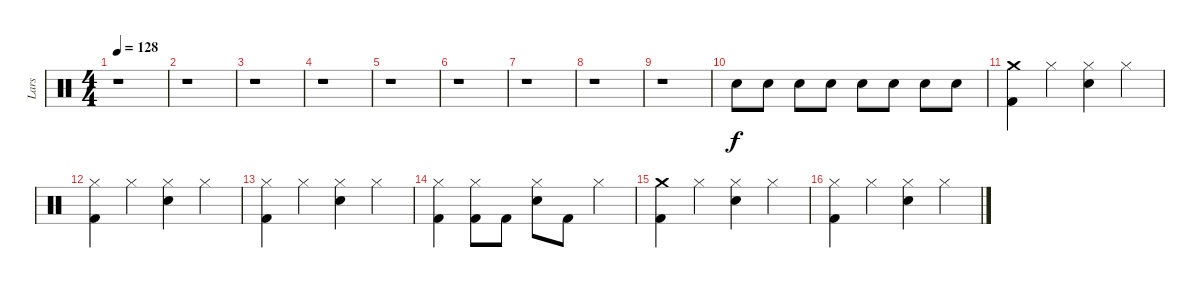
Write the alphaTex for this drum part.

\track ("Lars" "Lars") {instrument percussion}
\staff {score}
\articulation defaults
\ts (4 4)
\tempo 128
\clef neutral
\ks c
r.1{dy mp} |
r.1 |
r.1 |
r.1 |
r.1 |
r.1 |
r.1 |
r.1 |
r.1 |
"Snare (hit) 2".8{dy f} "Snare (hit) 2".8 "Snare (hit) 2".8 "Snare (hit) 2".8 "Snare (hit) 2".8 "Snare (hit) 2".8 "Snare (hit) 2".8 "Snare (hit) 2".8 |
("Kick (hit) 2" "Crash medium (hit)").4 "Hi-Hat (closed)".4 ("Snare (hit) 2" "Hi-Hat (closed)").4 "Hi-Hat (closed)".4 |
("Kick (hit) 2" "Hi-Hat (closed)").4 "Hi-Hat (closed)".4 ("Snare (hit) 2" "Hi-Hat (closed)").4 "Hi-Hat (closed)".4 |
("Kick (hit) 2" "Hi-Hat (closed)").4 "Hi-Hat (closed)".4 ("Snare (hit) 2" "Hi-Hat (closed)").4 "Hi-Hat (closed)".4 |
("Kick (hit) 2" "Hi-Hat (closed)").4 ("Kick (hit) 2" "Hi-Hat (closed)").8 "Kick (hit) 2".8 ("Snare (hit) 2" "Hi-Hat (closed)").8 "Kick (hit) 2".8 "Hi-Hat (closed)".4 |
("Kick (hit) 2" "Crash medium (hit)").4 "Hi-Hat (closed)".4 ("Snare (hit) 2" "Hi-Hat (closed)").4 "Hi-Hat (closed)".4 |
("Kick (hit) 2" "Hi-Hat (closed)").4 "Hi-Hat (closed)".4 ("Snare (hit) 2" "Hi-Hat (closed)").4 "Hi-Hat (closed)".4
